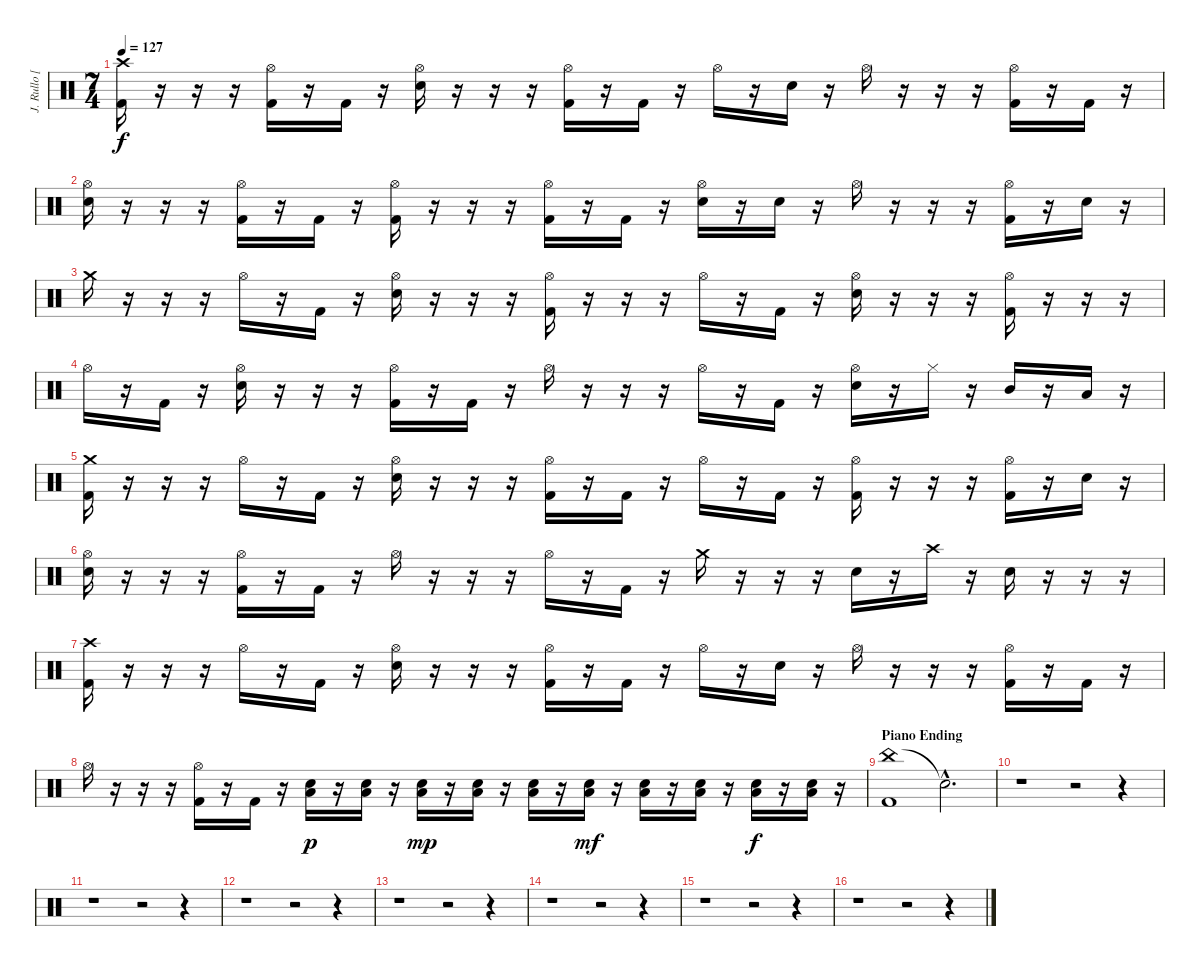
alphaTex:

\track ("J. Rullo [Drums]" "J. Rullo [") {instrument percussion}
\staff {score}
\articulation defaults
\ts (7 4)
\tempo 127
\clef neutral
\ks c
("Crash high (hit)" "Kick (hit) 2").16{dy f} r.16 r.16 r.16 ("Hi-Hat (open)" "Kick (hit) 2").16 r.16 "Kick (hit) 2".16 r.16 ("Hi-Hat (open)" "Electric Snare (hit)").16 r.16 r.16 r.16 ("Hi-Hat (open)" "Kick (hit) 2").16 r.16 "Kick (hit) 2".16 r.16 "Hi-Hat (open)".16 r.16 "Electric Snare (hit)".16 r.16 "Hi-Hat (open)".16 r.16 r.16 r.16 ("Hi-Hat (open)" "Kick (hit) 2").16 r.16 "Kick (hit) 2".16 r.16 |
("Hi-Hat (open)" "Electric Snare (hit)").16 r.16 r.16 r.16 ("Hi-Hat (open)" "Kick (hit) 2").16 r.16 "Kick (hit) 2".16 r.16 ("Hi-Hat (open)" "Kick (hit) 2").16 r.16 r.16 r.16 ("Hi-Hat (open)" "Kick (hit) 2").16 r.16 "Kick (hit) 2".16 r.16 ("Hi-Hat (open)" "Electric Snare (hit)").16 r.16 "Electric Snare (hit)".16 r.16 "Hi-Hat (open)".16 r.16 r.16 r.16 ("Hi-Hat (open)" "Kick (hit) 2").16 r.16 "Electric Snare (hit)".16 r.16 |
"Crash medium (hit)".16 r.16 r.16 r.16 "Hi-Hat (open)".16 r.16 "Kick (hit) 2".16 r.16 ("Hi-Hat (open)" "Electric Snare (hit)").16 r.16 r.16 r.16 ("Hi-Hat (open)" "Kick (hit) 2").16 r.16 r.16 r.16 "Hi-Hat (open)".16 r.16 "Kick (hit) 2".16 r.16 ("Hi-Hat (open)" "Electric Snare (hit)").16 r.16 r.16 r.16 ("Hi-Hat (open)" "Kick (hit) 2").16 r.16 r.16 r.16 |
"Hi-Hat (open)".16 r.16 "Kick (hit) 2".16 r.16 ("Hi-Hat (open)" "Electric Snare (hit)").16 r.16 r.16 r.16 ("Hi-Hat (open)" "Kick (hit) 2").16 r.16 "Kick (hit) 2".16 r.16 "Hi-Hat (open)".16 r.16 r.16 r.16 "Hi-Hat (open)".16 r.16 "Kick (hit) 2".16 r.16 ("Hi-Hat (open)" "Electric Snare (hit)").16 r.16 "Hi-Hat (closed)".16 r.16 "Mid Tom (hit)".16 r.16 "Low Tom (hit)".16 r.16 |
("Crash medium (hit)" "Kick (hit) 2").16 r.16 r.16 r.16 "Hi-Hat (open)".16 r.16 "Kick (hit) 2".16 r.16 ("Hi-Hat (open)" "Electric Snare (hit)").16 r.16 r.16 r.16 ("Hi-Hat (open)" "Kick (hit) 2").16 r.16 "Kick (hit) 2".16 r.16 "Hi-Hat (open)".16 r.16 "Kick (hit) 2".16 r.16 ("Hi-Hat (open)" "Kick (hit) 2").16 r.16 r.16 r.16 ("Hi-Hat (open)" "Kick (hit) 2").16 r.16 "Electric Snare (hit)".16 r.16 |
("Hi-Hat (open)" "Electric Snare (hit)").16 r.16 r.16 r.16 ("Hi-Hat (open)" "Kick (hit) 2").16 r.16 "Kick (hit) 2".16 r.16 "Hi-Hat (open)".16 r.16 r.16 r.16 "Hi-Hat (open)".16 r.16 "Kick (hit) 2".16 r.16 "Crash medium (hit)".16 r.16 r.16 r.16 "Electric Snare (hit)".16 r.16 "Crash high (hit)".16 r.16 "Electric Snare (hit)".16 r.16 r.16 r.16 |
("Crash high (hit)" "Kick (hit) 2").16 r.16 r.16 r.16 "Hi-Hat (open)".16 r.16 "Kick (hit) 2".16 r.16 ("Hi-Hat (open)" "Electric Snare (hit)").16 r.16 r.16 r.16 ("Hi-Hat (open)" "Kick (hit) 2").16 r.16 "Kick (hit) 2".16 r.16 "Hi-Hat (open)".16 r.16 "Electric Snare (hit)".16 r.16 "Hi-Hat (open)".16 r.16 r.16 r.16 ("Hi-Hat (open)" "Kick (hit) 2").16 r.16 "Kick (hit) 2".16 r.16 |
"Hi-Hat (open)".16 r.16 r.16 r.16 ("Hi-Hat (open)" "Kick (hit) 2").16 r.16 "Kick (hit) 2".16 r.16 ("Low Tom (hit)" "Electric Snare (hit)").16{dy p} r.16 ("Low Tom (hit)" "Electric Snare (hit)").16 r.16 ("Low Tom (hit)" "Electric Snare (hit)").16{dy mp} r.16 ("Low Tom (hit)" "Electric Snare (hit)").16 r.16 ("Low Tom (hit)" "Electric Snare (hit)").16 r.16 ("Low Tom (hit)" "Electric Snare (hit)").16{dy mf} r.16 ("Low Tom (hit)" "Electric Snare (hit)").16 r.16 ("Low Tom (hit)" "Electric Snare (hit)").16 r.16 ("Low Tom (hit)" "Electric Snare (hit)").16{dy f} r.16 ("Low Tom (hit)" "Electric Snare (hit)").16 r.16 |
\section ("" "Piano Ending")
("China (hit)" "Kick (hit) 2").1 "Snare (hit)"{hac t}.2{d} |
r.1 r.2 r.4 |
r.1 r.2 r.4 |
r.1 r.2 r.4 |
r.1 r.2 r.4 |
r.1 r.2 r.4 |
r.1 r.2 r.4 |
r.1 r.2 r.4
